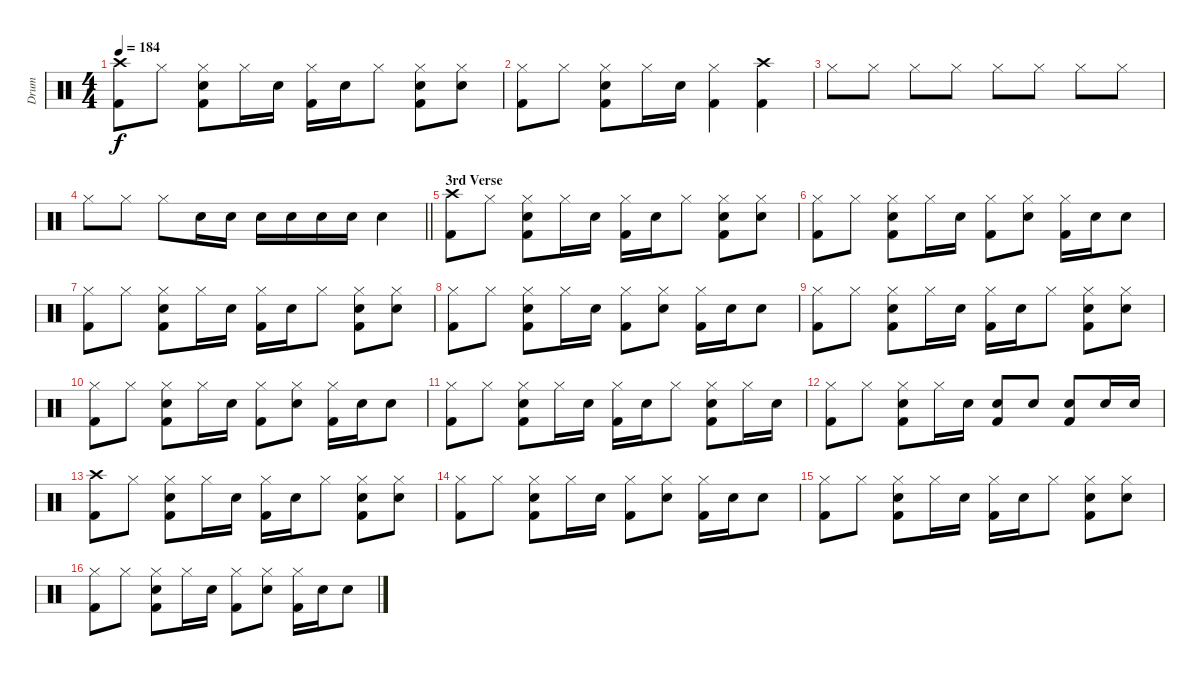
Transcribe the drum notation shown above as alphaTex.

\track ("Drum" "Drum") {instrument percussion}
\staff {score}
\articulation defaults
\ts (4 4)
\tempo 184
\clef neutral
\ks c
("Crash high (hit)" "Kick (hit) 2").8{dy f} "Hi-Hat (closed)".8 ("Hi-Hat (closed)" "Electric Snare (hit)" "Kick (hit) 2").8 "Hi-Hat (closed)".16 "Electric Snare (hit)".16 ("Hi-Hat (closed)" "Kick (hit) 2").16 "Electric Snare (hit)".16 "Hi-Hat (closed)".8 ("Hi-Hat (closed)" "Electric Snare (hit)" "Kick (hit) 2").8 ("Hi-Hat (closed)" "Electric Snare (hit)").8 |
("Hi-Hat (closed)" "Kick (hit) 2").8 "Hi-Hat (closed)".8 ("Hi-Hat (closed)" "Electric Snare (hit)" "Kick (hit) 2").8 "Hi-Hat (closed)".16 "Electric Snare (hit)".16 ("Hi-Hat (closed)" "Kick (hit) 2").4 ("Crash high (hit)" "Kick (hit) 2").4 |
"Hi-Hat (closed)".8 "Hi-Hat (closed)".8 "Hi-Hat (closed)".8 "Hi-Hat (closed)".8 "Hi-Hat (closed)".8 "Hi-Hat (closed)".8 "Hi-Hat (closed)".8 "Hi-Hat (closed)".8 |
\barLineRight lightlight "Hi-Hat (closed)".8 "Hi-Hat (closed)".8 "Hi-Hat (closed)".8 "Electric Snare (hit)".16 "Electric Snare (hit)".16 "Electric Snare (hit)".16 "Electric Snare (hit)".16 "Electric Snare (hit)".16 "Electric Snare (hit)".16 "Electric Snare (hit)".4
|
\section ("" "3rd Verse")
("Crash high (hit)" "Kick (hit) 2").8 "Hi-Hat (closed)".8 ("Hi-Hat (closed)" "Electric Snare (hit)" "Kick (hit) 2").8 "Hi-Hat (closed)".16 "Electric Snare (hit)".16 ("Hi-Hat (closed)" "Kick (hit) 2").16 "Electric Snare (hit)".16 "Hi-Hat (closed)".8 ("Hi-Hat (closed)" "Electric Snare (hit)" "Kick (hit) 2").8 ("Hi-Hat (closed)" "Electric Snare (hit)").8 |
("Hi-Hat (closed)" "Kick (hit) 2").8 "Hi-Hat (closed)".8 ("Hi-Hat (closed)" "Electric Snare (hit)" "Kick (hit) 2").8 "Hi-Hat (closed)".16 "Electric Snare (hit)".16 ("Hi-Hat (closed)" "Kick (hit) 2").8 ("Hi-Hat (closed)" "Electric Snare (hit)").8 ("Hi-Hat (closed)" "Kick (hit) 2").16 "Electric Snare (hit)".16 "Electric Snare (hit)".8 |
("Hi-Hat (closed)" "Kick (hit) 2").8 "Hi-Hat (closed)".8 ("Hi-Hat (closed)" "Electric Snare (hit)" "Kick (hit) 2").8 "Hi-Hat (closed)".16 "Electric Snare (hit)".16 ("Hi-Hat (closed)" "Kick (hit) 2").16 "Electric Snare (hit)".16 "Hi-Hat (closed)".8 ("Hi-Hat (closed)" "Electric Snare (hit)" "Kick (hit) 2").8 ("Hi-Hat (closed)" "Electric Snare (hit)").8 |
("Hi-Hat (closed)" "Kick (hit) 2").8 "Hi-Hat (closed)".8 ("Hi-Hat (closed)" "Electric Snare (hit)" "Kick (hit) 2").8 "Hi-Hat (closed)".16 "Electric Snare (hit)".16 ("Hi-Hat (closed)" "Kick (hit) 2").8 ("Hi-Hat (closed)" "Electric Snare (hit)").8 ("Hi-Hat (closed)" "Kick (hit) 2").16 "Electric Snare (hit)".16 "Electric Snare (hit)".8 |
("Hi-Hat (closed)" "Kick (hit) 2").8 "Hi-Hat (closed)".8 ("Hi-Hat (closed)" "Electric Snare (hit)" "Kick (hit) 2").8 "Hi-Hat (closed)".16 "Electric Snare (hit)".16 ("Hi-Hat (closed)" "Kick (hit) 2").16 "Electric Snare (hit)".16 "Hi-Hat (closed)".8 ("Hi-Hat (closed)" "Electric Snare (hit)" "Kick (hit) 2").8 ("Hi-Hat (closed)" "Electric Snare (hit)").8 |
("Hi-Hat (closed)" "Kick (hit) 2").8 "Hi-Hat (closed)".8 ("Hi-Hat (closed)" "Electric Snare (hit)" "Kick (hit) 2").8 "Hi-Hat (closed)".16 "Electric Snare (hit)".16 ("Hi-Hat (closed)" "Kick (hit) 2").8 ("Hi-Hat (closed)" "Electric Snare (hit)").8 ("Hi-Hat (closed)" "Kick (hit) 2").16 "Electric Snare (hit)".16 "Electric Snare (hit)".8 |
("Hi-Hat (closed)" "Kick (hit) 2").8 "Hi-Hat (closed)".8 ("Hi-Hat (closed)" "Electric Snare (hit)" "Kick (hit) 2").8 "Hi-Hat (closed)".16 "Electric Snare (hit)".16 ("Hi-Hat (closed)" "Kick (hit) 2").16 "Electric Snare (hit)".16 "Hi-Hat (closed)".8 ("Hi-Hat (closed)" "Electric Snare (hit)" "Kick (hit) 2").8 "Hi-Hat (closed)".16 "Electric Snare (hit)".16 |
("Hi-Hat (closed)" "Kick (hit) 2").8 "Hi-Hat (closed)".8 ("Hi-Hat (closed)" "Electric Snare (hit)" "Kick (hit) 2").8 "Hi-Hat (closed)".16 "Electric Snare (hit)".16 ("Electric Snare (hit)" "Kick (hit) 2").8 "Electric Snare (hit)".8 ("Electric Snare (hit)" "Kick (hit) 2").8 "Electric Snare (hit)".16 "Electric Snare (hit)".16 |
("Crash high (hit)" "Kick (hit) 2").8 "Hi-Hat (closed)".8 ("Hi-Hat (closed)" "Electric Snare (hit)" "Kick (hit) 2").8 "Hi-Hat (closed)".16 "Electric Snare (hit)".16 ("Hi-Hat (closed)" "Kick (hit) 2").16 "Electric Snare (hit)".16 "Hi-Hat (closed)".8 ("Hi-Hat (closed)" "Electric Snare (hit)" "Kick (hit) 2").8 ("Hi-Hat (closed)" "Electric Snare (hit)").8 |
("Hi-Hat (closed)" "Kick (hit) 2").8 "Hi-Hat (closed)".8 ("Hi-Hat (closed)" "Electric Snare (hit)" "Kick (hit) 2").8 "Hi-Hat (closed)".16 "Electric Snare (hit)".16 ("Hi-Hat (closed)" "Kick (hit) 2").8 ("Hi-Hat (closed)" "Electric Snare (hit)").8 ("Hi-Hat (closed)" "Kick (hit) 2").16 "Electric Snare (hit)".16 "Electric Snare (hit)".8 |
("Hi-Hat (closed)" "Kick (hit) 2").8 "Hi-Hat (closed)".8 ("Hi-Hat (closed)" "Electric Snare (hit)" "Kick (hit) 2").8 "Hi-Hat (closed)".16 "Electric Snare (hit)".16 ("Hi-Hat (closed)" "Kick (hit) 2").16 "Electric Snare (hit)".16 "Hi-Hat (closed)".8 ("Hi-Hat (closed)" "Electric Snare (hit)" "Kick (hit) 2").8 ("Hi-Hat (closed)" "Electric Snare (hit)").8 |
("Hi-Hat (closed)" "Kick (hit) 2").8 "Hi-Hat (closed)".8 ("Hi-Hat (closed)" "Electric Snare (hit)" "Kick (hit) 2").8 "Hi-Hat (closed)".16 "Electric Snare (hit)".16 ("Hi-Hat (closed)" "Kick (hit) 2").8 ("Hi-Hat (closed)" "Electric Snare (hit)").8 ("Hi-Hat (closed)" "Kick (hit) 2").16 "Electric Snare (hit)".16 "Electric Snare (hit)".8
